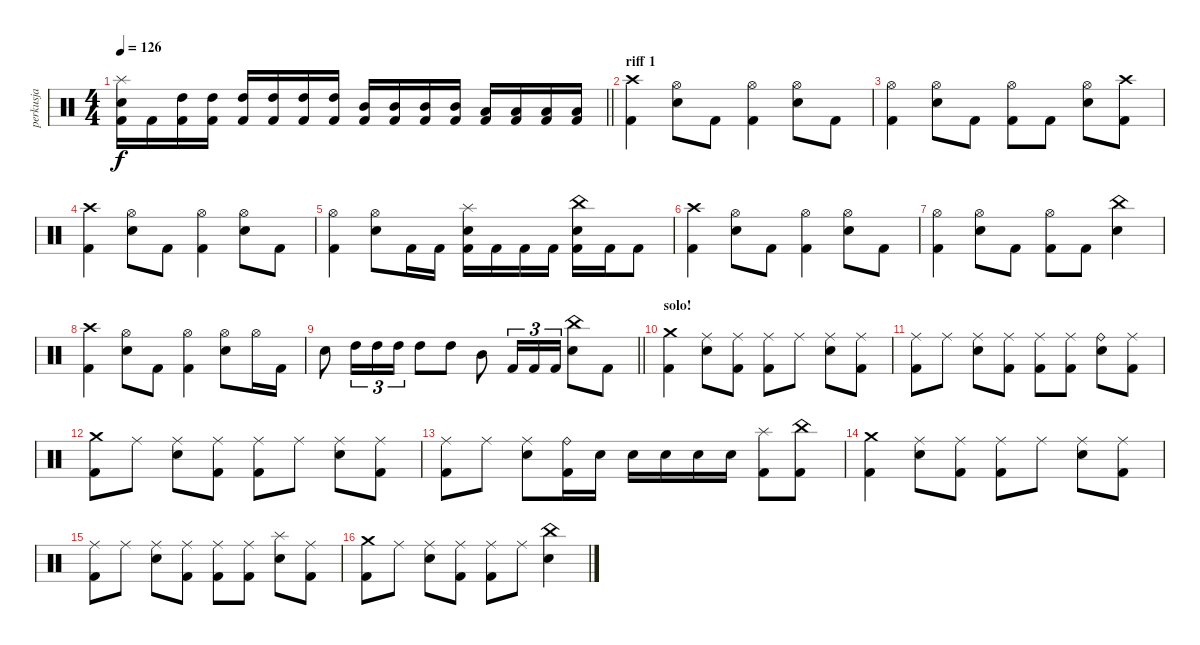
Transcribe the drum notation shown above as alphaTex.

\track ("perkusja" "perkusja") {instrument percussion}
\staff {score}
\articulation defaults
\ts (4 4)
\tempo 126
\clef neutral
\barLineRight lightlight
\ks c
("Splash (hit)" "Electric Snare (hit)" "Kick (hit) 2").16{dy f} "Kick (hit) 2".16 ("High Tom (hit)" "Kick (hit) 2").16 ("High Tom (hit)" "Kick (hit) 2").16 ("High Tom (hit)" "Kick (hit) 2").16 ("High Tom (hit)" "Kick (hit) 2").16 ("High Tom (hit)" "Kick (hit) 2").16 ("High Tom (hit)" "Kick (hit) 2").16 ("Mid Tom (hit)" "Kick (hit) 2").16 ("Mid Tom (hit)" "Kick (hit) 2").16 ("Mid Tom (hit)" "Kick (hit) 2").16 ("Mid Tom (hit)" "Kick (hit) 2").16 ("Low Tom (hit)" "Kick (hit) 2").16 ("Low Tom (hit)" "Kick (hit) 2").16 ("Low Tom (hit)" "Kick (hit) 2").16 ("Low Tom (hit)" "Kick (hit) 2").16 |
\section ("" "riff 1")
("Crash high (hit)" "Kick (hit) 2").4 ("Hi-Hat (open)" "Electric Snare (hit)").8 "Kick (hit) 2".8 ("Hi-Hat (open)" "Kick (hit) 2").4 ("Hi-Hat (open)" "Electric Snare (hit)").8 "Kick (hit) 2".8 |
("Hi-Hat (open)" "Kick (hit) 2").4 ("Hi-Hat (open)" "Electric Snare (hit)").8 "Kick (hit) 2".8 ("Hi-Hat (open)" "Kick (hit) 2").8 "Kick (hit) 2".8 ("Hi-Hat (open)" "Electric Snare (hit)").8 ("Crash high (hit)" "Kick (hit) 2").8 |
("Crash high (hit)" "Kick (hit) 2").4 ("Hi-Hat (open)" "Electric Snare (hit)").8 "Kick (hit) 2".8 ("Hi-Hat (open)" "Kick (hit) 2").4 ("Hi-Hat (open)" "Electric Snare (hit)").8 "Kick (hit) 2".8 |
("Hi-Hat (open)" "Kick (hit) 2").4 ("Hi-Hat (open)" "Electric Snare (hit)").8 "Kick (hit) 2".16 "Kick (hit) 2".16 ("Splash (hit)" "Electric Snare (hit)" "Kick (hit) 2").16 "Kick (hit) 2".16 "Kick (hit) 2".16 "Kick (hit) 2".16 ("China (hit)" "Electric Snare (hit)" "Kick (hit) 2").16 "Kick (hit) 2".16 "Kick (hit) 2".8 |
("Crash high (hit)" "Kick (hit) 2").4 ("Hi-Hat (open)" "Electric Snare (hit)").8 "Kick (hit) 2".8 ("Hi-Hat (open)" "Kick (hit) 2").4 ("Hi-Hat (open)" "Electric Snare (hit)").8 "Kick (hit) 2".8 |
("Hi-Hat (open)" "Kick (hit) 2").4 ("Hi-Hat (open)" "Electric Snare (hit)").8 "Kick (hit) 2".8 ("Hi-Hat (open)" "Kick (hit) 2").8 "Kick (hit) 2".8 ("China (hit)" "Electric Snare (hit)").4 |
("Crash high (hit)" "Kick (hit) 2").4 ("Hi-Hat (open)" "Electric Snare (hit)").8 "Kick (hit) 2".8 ("Hi-Hat (open)" "Kick (hit) 2").4 ("Hi-Hat (open)" "Electric Snare (hit)").8 "Hi-Hat (open)".16 "Kick (hit) 2".16 |
\barLineRight lightlight "Electric Snare (hit)".8 "High Tom (hit)".16{tu (3 2)} "High Tom (hit)".16{tu (3 2)} "High Tom (hit)".16{tu (3 2)} "High Tom (hit)".8 "High Tom (hit)".8 "Mid Tom (hit)".8 "Kick (hit) 2".16{tu (3 2)} "Kick (hit) 2".16{tu (3 2)} "Kick (hit) 2".16{tu (3 2)}
("China (hit)" "Electric Snare (hit)").8 "Kick (hit) 2".8 |
\section ("" "solo!")
("Crash medium (hit)" "Kick (hit) 2").4 ("Ride (middle)" "Electric Snare (hit)").8 ("Ride (middle)" "Kick (hit) 2").8 ("Ride (middle)" "Kick (hit) 2").8 "Ride (middle)".8 ("Ride (middle)" "Electric Snare (hit)").8 ("Ride (middle)" "Kick (hit) 2").8 |
("Ride (middle)" "Kick (hit) 2").8 "Ride (middle)".8 ("Ride (middle)" "Electric Snare (hit)").8 ("Ride (middle)" "Kick (hit) 2").8 ("Ride (middle)" "Kick (hit) 2").8 ("Ride (middle)" "Kick (hit) 2").8 ("Ride (bell)" "Electric Snare (hit)").8 ("Ride (middle)" "Kick (hit) 2").8 |
("Crash medium (hit)" "Kick (hit) 2").8 "Ride (middle)".8 ("Ride (middle)" "Electric Snare (hit)").8 ("Ride (middle)" "Kick (hit) 2").8 ("Ride (middle)" "Kick (hit) 2").8 "Ride (middle)".8 ("Ride (middle)" "Electric Snare (hit)").8 ("Ride (middle)" "Kick (hit) 2").8 |
("Ride (middle)" "Kick (hit) 2").8 "Ride (middle)".8 ("Ride (middle)" "Electric Snare (hit)").8 ("Ride (bell)" "Kick (hit) 2").16 "Electric Snare (hit)".16 "Electric Snare (hit)".16 "Electric Snare (hit)".16 "Electric Snare (hit)".16 "Electric Snare (hit)".16 ("Splash (hit)" "Kick (hit) 2").8 ("China (hit)" "Kick (hit) 2").8 |
("Crash medium (hit)" "Kick (hit) 2").4 ("Ride (middle)" "Electric Snare (hit)").8 ("Ride (middle)" "Kick (hit) 2").8 ("Ride (middle)" "Kick (hit) 2").8 "Ride (middle)".8 ("Ride (middle)" "Electric Snare (hit)").8 ("Ride (middle)" "Kick (hit) 2").8 |
("Ride (middle)" "Kick (hit) 2").8 "Ride (middle)".8 ("Ride (middle)" "Electric Snare (hit)").8 ("Ride (middle)" "Kick (hit) 2").8 ("Ride (middle)" "Kick (hit) 2").8 ("Ride (middle)" "Kick (hit) 2").8 ("Splash (hit)" "Electric Snare (hit)").8 ("Ride (middle)" "Kick (hit) 2").8 |
("Crash medium (hit)" "Kick (hit) 2").8 "Ride (middle)".8 ("Ride (middle)" "Electric Snare (hit)").8 ("Ride (middle)" "Kick (hit) 2").8 ("Ride (middle)" "Kick (hit) 2").8 "Ride (middle)".8 ("China (hit)" "Electric Snare (hit)").4
